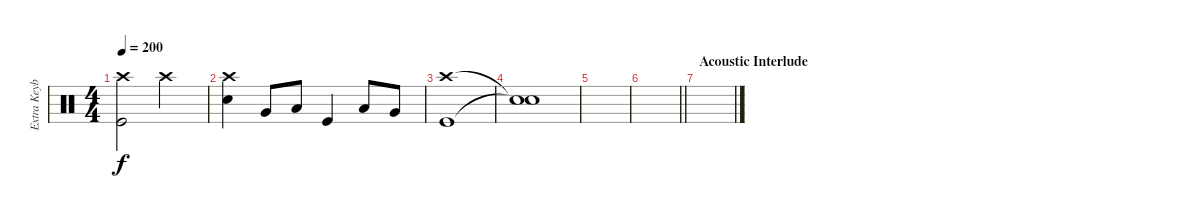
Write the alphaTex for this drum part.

\track ("Extra Keyboard" "Extra Keyb") {instrument percussion}
\staff {score}
\articulation defaults
\ts (4 4)
\tempo 200
\clef neutral
\ks c
("Crash high (hit)" "Kick (hit)").2{dy f} "Crash high (hit)".2 |
("Crash high (hit)" "Electric Snare (hit)").4 "Very Low Tom (hit)".8 "Low Floor Tom (hit)".8 "Kick (hit)".4 "Low Tom (hit)".8 "Very Low Tom (hit)".8 |
("Crash high (hit)" "Kick (hit)").1 |
("Snare (hit)"{t} "Snare (hit)"{t}).1 |
|
\barLineRight lightlight
|
\section ("" "Acoustic Interlude")
